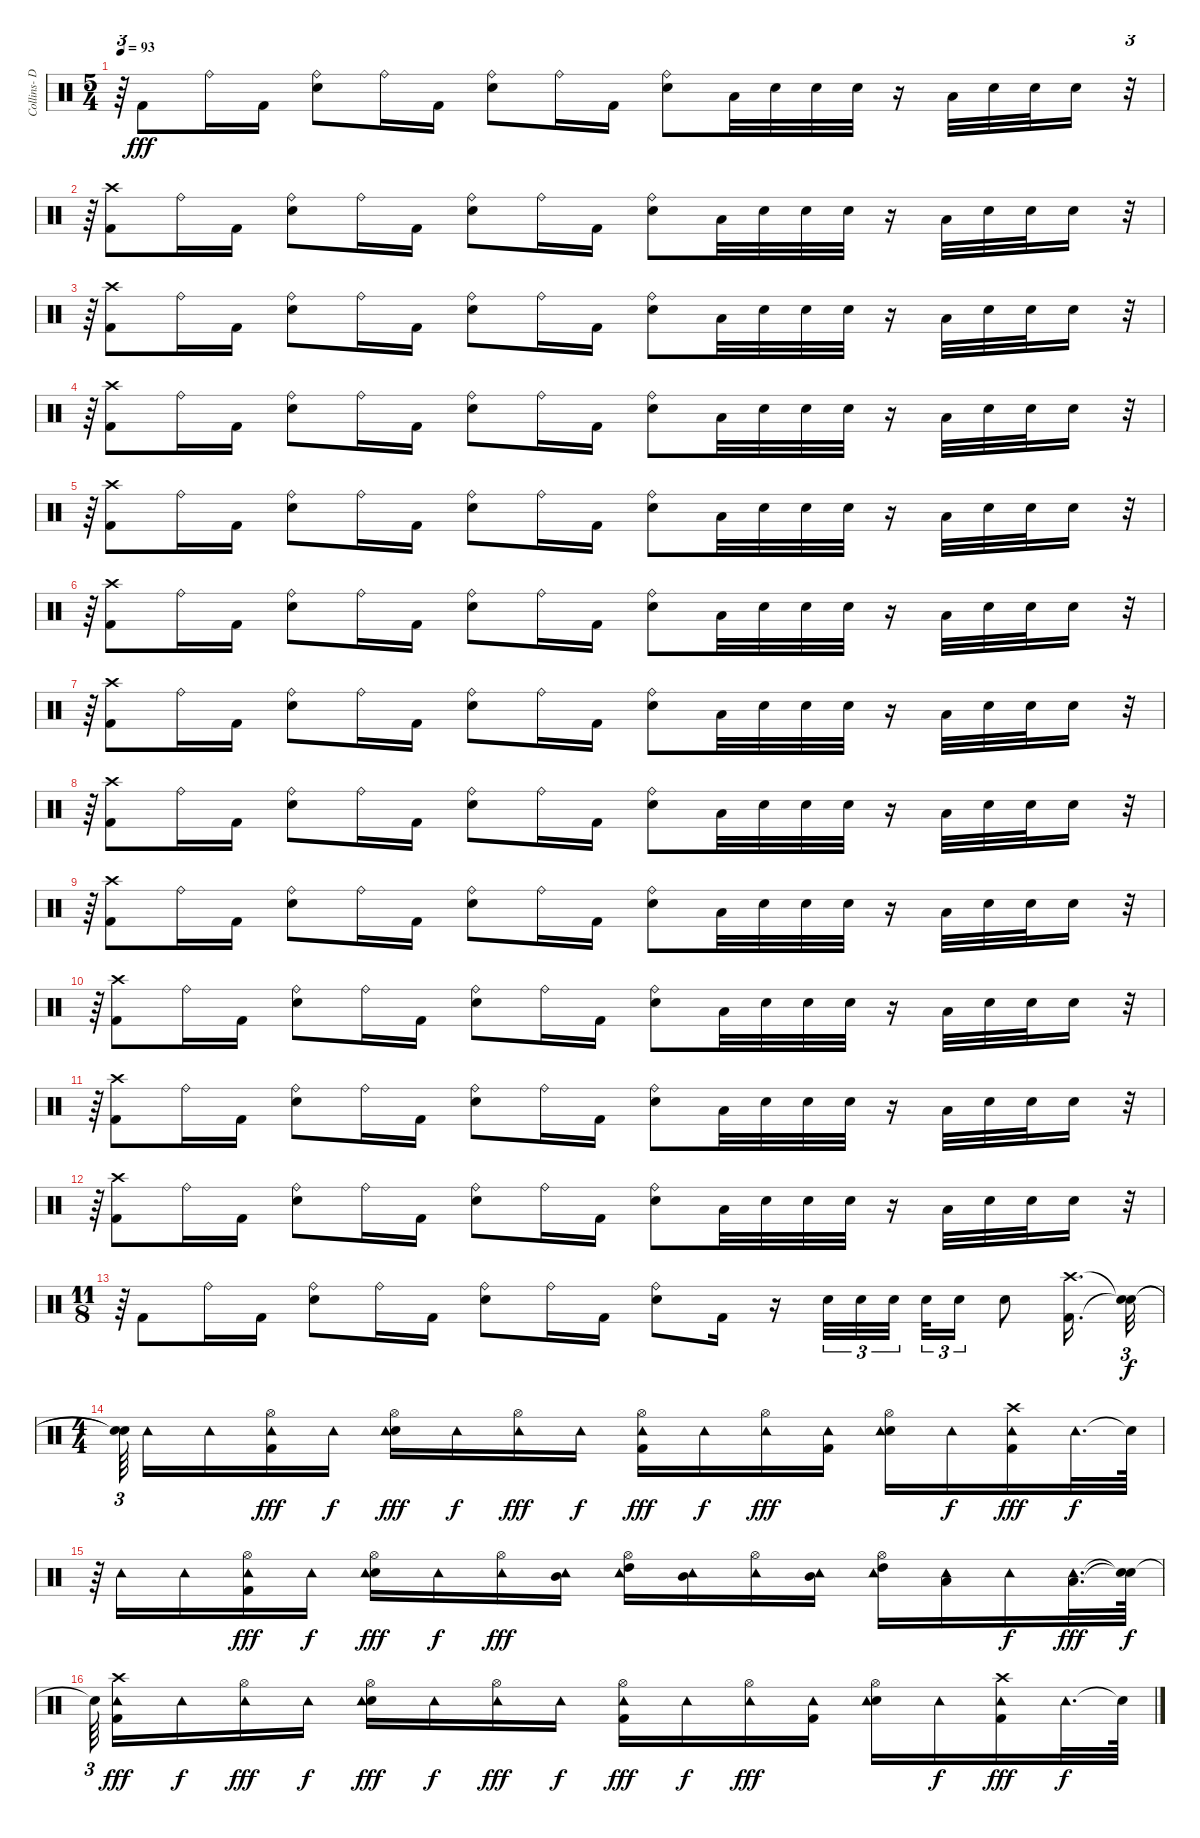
\track ("Collins- Drums" "Collins- D") {instrument percussion}
\staff {score}
\articulation defaults
\ts (5 4)
\tempo 93
\clef neutral
\ks c
r.64{tu (3 2) dy fff} "Kick (hit) 2".8 "Ride (bell)".16 "Kick (hit) 2".16 ("Electric Snare (hit)" "Ride (bell)").8 "Ride (bell)".16 "Kick (hit) 2".16 ("Electric Snare (hit)" "Ride (bell)").8 "Ride (bell)".16 "Kick (hit) 2".16 ("Ride (bell)" "Electric Snare (hit)").8 "Low Tom (hit)".32 "Electric Snare (hit)".32 "Electric Snare (hit)".32 "Electric Snare (hit)".32 r.16 "Low Tom (hit)".32 "Electric Snare (hit)".32 "Electric Snare (hit)".32 "Electric Snare (hit)".16 r.32{tu (3 2)} |
r.64{tu (3 2)} ("Crash high (hit)" "Kick (hit) 2").8 "Ride (bell)".16 "Kick (hit) 2".16 ("Electric Snare (hit)" "Ride (bell)").8 "Ride (bell)".16 "Kick (hit) 2".16 ("Electric Snare (hit)" "Ride (bell)").8 "Ride (bell)".16 "Kick (hit) 2".16 ("Ride (bell)" "Electric Snare (hit)").8 "Low Tom (hit)".32 "Electric Snare (hit)".32 "Electric Snare (hit)".32 "Electric Snare (hit)".32 r.16 "Low Tom (hit)".32 "Electric Snare (hit)".32 "Electric Snare (hit)".32 "Electric Snare (hit)".16 r.32{tu (3 2)} |
r.64{tu (3 2)} ("Crash high (hit)" "Kick (hit) 2").8 "Ride (bell)".16 "Kick (hit) 2".16 ("Electric Snare (hit)" "Ride (bell)").8 "Ride (bell)".16 "Kick (hit) 2".16 ("Electric Snare (hit)" "Ride (bell)").8 "Ride (bell)".16 "Kick (hit) 2".16 ("Ride (bell)" "Electric Snare (hit)").8 "Low Tom (hit)".32 "Electric Snare (hit)".32 "Electric Snare (hit)".32 "Electric Snare (hit)".32 r.16 "Low Tom (hit)".32 "Electric Snare (hit)".32 "Electric Snare (hit)".32 "Electric Snare (hit)".16 r.32{tu (3 2)} |
r.64{tu (3 2)} ("Crash high (hit)" "Kick (hit) 2").8 "Ride (bell)".16 "Kick (hit) 2".16 ("Electric Snare (hit)" "Ride (bell)").8 "Ride (bell)".16 "Kick (hit) 2".16 ("Electric Snare (hit)" "Ride (bell)").8 "Ride (bell)".16 "Kick (hit) 2".16 ("Ride (bell)" "Electric Snare (hit)").8 "Low Tom (hit)".32 "Electric Snare (hit)".32 "Electric Snare (hit)".32 "Electric Snare (hit)".32 r.16 "Low Tom (hit)".32 "Electric Snare (hit)".32 "Electric Snare (hit)".32 "Electric Snare (hit)".16 r.32{tu (3 2)} |
r.64{tu (3 2)} ("Crash high (hit)" "Kick (hit) 2").8 "Ride (bell)".16 "Kick (hit) 2".16 ("Electric Snare (hit)" "Ride (bell)").8 "Ride (bell)".16 "Kick (hit) 2".16 ("Electric Snare (hit)" "Ride (bell)").8 "Ride (bell)".16 "Kick (hit) 2".16 ("Ride (bell)" "Electric Snare (hit)").8 "Low Tom (hit)".32 "Electric Snare (hit)".32 "Electric Snare (hit)".32 "Electric Snare (hit)".32 r.16 "Low Tom (hit)".32 "Electric Snare (hit)".32 "Electric Snare (hit)".32 "Electric Snare (hit)".16 r.32{tu (3 2)} |
r.64{tu (3 2)} ("Crash high (hit)" "Kick (hit) 2").8 "Ride (bell)".16 "Kick (hit) 2".16 ("Electric Snare (hit)" "Ride (bell)").8 "Ride (bell)".16 "Kick (hit) 2".16 ("Electric Snare (hit)" "Ride (bell)").8 "Ride (bell)".16 "Kick (hit) 2".16 ("Ride (bell)" "Electric Snare (hit)").8 "Low Tom (hit)".32 "Electric Snare (hit)".32 "Electric Snare (hit)".32 "Electric Snare (hit)".32 r.16 "Low Tom (hit)".32 "Electric Snare (hit)".32 "Electric Snare (hit)".32 "Electric Snare (hit)".16 r.32{tu (3 2)} |
r.64{tu (3 2)} ("Crash high (hit)" "Kick (hit) 2").8 "Ride (bell)".16 "Kick (hit) 2".16 ("Electric Snare (hit)" "Ride (bell)").8 "Ride (bell)".16 "Kick (hit) 2".16 ("Electric Snare (hit)" "Ride (bell)").8 "Ride (bell)".16 "Kick (hit) 2".16 ("Ride (bell)" "Electric Snare (hit)").8 "Low Tom (hit)".32 "Electric Snare (hit)".32 "Electric Snare (hit)".32 "Electric Snare (hit)".32 r.16 "Low Tom (hit)".32 "Electric Snare (hit)".32 "Electric Snare (hit)".32 "Electric Snare (hit)".16 r.32{tu (3 2)} |
r.64{tu (3 2)} ("Crash high (hit)" "Kick (hit) 2").8 "Ride (bell)".16 "Kick (hit) 2".16 ("Electric Snare (hit)" "Ride (bell)").8 "Ride (bell)".16 "Kick (hit) 2".16 ("Electric Snare (hit)" "Ride (bell)").8 "Ride (bell)".16 "Kick (hit) 2".16 ("Ride (bell)" "Electric Snare (hit)").8 "Low Tom (hit)".32 "Electric Snare (hit)".32 "Electric Snare (hit)".32 "Electric Snare (hit)".32 r.16 "Low Tom (hit)".32 "Electric Snare (hit)".32 "Electric Snare (hit)".32 "Electric Snare (hit)".16 r.32{tu (3 2)} |
r.64{tu (3 2)} ("Crash high (hit)" "Kick (hit) 2").8 "Ride (bell)".16 "Kick (hit) 2".16 ("Electric Snare (hit)" "Ride (bell)").8 "Ride (bell)".16 "Kick (hit) 2".16 ("Electric Snare (hit)" "Ride (bell)").8 "Ride (bell)".16 "Kick (hit) 2".16 ("Ride (bell)" "Electric Snare (hit)").8 "Low Tom (hit)".32 "Electric Snare (hit)".32 "Electric Snare (hit)".32 "Electric Snare (hit)".32 r.16 "Low Tom (hit)".32 "Electric Snare (hit)".32 "Electric Snare (hit)".32 "Electric Snare (hit)".16 r.32{tu (3 2)} |
r.64{tu (3 2)} ("Crash high (hit)" "Kick (hit) 2").8 "Ride (bell)".16 "Kick (hit) 2".16 ("Electric Snare (hit)" "Ride (bell)").8 "Ride (bell)".16 "Kick (hit) 2".16 ("Electric Snare (hit)" "Ride (bell)").8 "Ride (bell)".16 "Kick (hit) 2".16 ("Ride (bell)" "Electric Snare (hit)").8 "Low Tom (hit)".32 "Electric Snare (hit)".32 "Electric Snare (hit)".32 "Electric Snare (hit)".32 r.16 "Low Tom (hit)".32 "Electric Snare (hit)".32 "Electric Snare (hit)".32 "Electric Snare (hit)".16 r.32{tu (3 2)} |
r.64{tu (3 2)} ("Crash high (hit)" "Kick (hit) 2").8 "Ride (bell)".16 "Kick (hit) 2".16 ("Electric Snare (hit)" "Ride (bell)").8 "Ride (bell)".16 "Kick (hit) 2".16 ("Electric Snare (hit)" "Ride (bell)").8 "Ride (bell)".16 "Kick (hit) 2".16 ("Ride (bell)" "Electric Snare (hit)").8 "Low Tom (hit)".32 "Electric Snare (hit)".32 "Electric Snare (hit)".32 "Electric Snare (hit)".32 r.16 "Low Tom (hit)".32 "Electric Snare (hit)".32 "Electric Snare (hit)".32 "Electric Snare (hit)".16 r.32{tu (3 2)} |
r.64{tu (3 2)} ("Crash high (hit)" "Kick (hit) 2").8 "Ride (bell)".16 "Kick (hit) 2".16 ("Electric Snare (hit)" "Ride (bell)").8 "Ride (bell)".16 "Kick (hit) 2".16 ("Electric Snare (hit)" "Ride (bell)").8 "Ride (bell)".16 "Kick (hit) 2".16 ("Ride (bell)" "Electric Snare (hit)").8 "Low Tom (hit)".32 "Electric Snare (hit)".32 "Electric Snare (hit)".32 "Electric Snare (hit)".32 r.16 "Low Tom (hit)".32 "Electric Snare (hit)".32 "Electric Snare (hit)".32 "Electric Snare (hit)".16 r.32{tu (3 2)} |
\ts (11 8)
r.64{tu (3 2)} "Kick (hit) 2".8 "Ride (bell)".16 "Kick (hit) 2".16 ("Electric Snare (hit)" "Ride (bell)").8 "Ride (bell)".16 "Kick (hit) 2".16 ("Electric Snare (hit)" "Ride (bell)").8 "Ride (bell)".16 "Kick (hit) 2".16 ("Ride (bell)" "Electric Snare (hit)").8 "Kick (hit) 2".16 r.16 "Electric Snare (hit)".32{tu (3 2)} "Electric Snare (hit)".32{tu (3 2)} "Electric Snare (hit)".32{tu (3 2) beam splitsecondary} "Electric Snare (hit)".32{tu (3 2)} "Electric Snare (hit)".16{tu (3 2)} "Electric Snare (hit)".8 ("Kick (hit) 2" "Crash high (hit)").16{d} ("Snare (hit)"{t} "Snare (hit)"{t}).32{tu (3 2) dy f} |
\ts (4 4)
("Snare (hit)"{t} "Snare (hit)"{t}).64{tu (3 2) beam splitsecondary} "Tambourine (hit)".16 "Tambourine (hit)".16 ("Hi-Hat (open)" "Kick (hit) 2" "Tambourine (hit)").16{dy fff} "Tambourine (hit)".16{dy f} ("Hi-Hat (open)" "Electric Snare (hit)" "Tambourine (hit)").16{dy fff} "Tambourine (hit)".16{dy f} ("Hi-Hat (open)" "Tambourine (hit)").16{dy fff} "Tambourine (hit)".16{dy f} ("Hi-Hat (open)" "Kick (hit) 2" "Tambourine (hit)").16{dy fff} "Tambourine (hit)".16{dy f} ("Hi-Hat (open)" "Tambourine (hit)").16{dy fff} ("Kick (hit) 2" "Tambourine (hit)").16 ("Hi-Hat (open)" "Electric Snare (hit)" "Tambourine (hit)").16 "Tambourine (hit)".16{dy f} ("Kick (hit) 2" "Crash high (hit)" "Tambourine (hit)").16{dy fff} "Tambourine (hit)".32{d dy f} "Snare (hit)"{t}.64 |
r.64{tu (3 2)} "Tambourine (hit)".16 "Tambourine (hit)".16 ("Hi-Hat (open)" "Kick (hit) 2" "Tambourine (hit)").16{dy fff} "Tambourine (hit)".16{dy f} ("Hi-Hat (open)" "Electric Snare (hit)" "Tambourine (hit)").16{dy fff} "Tambourine (hit)".16{dy f} ("Hi-Hat (open)" "Tambourine (hit)").16{dy fff} ("Mid Tom (hit)" "Tambourine (hit)").16 ("High Tom (hit)" "Hi-Hat (open)" "Tambourine (hit)").16 ("Mid Tom (hit)" "Tambourine (hit)").16 ("Hi-Hat (open)" "Tambourine (hit)").16 ("Mid Tom (hit)" "Tambourine (hit)").16 ("Hi-Hat (open)" "High Tom (hit)" "Tambourine (hit)").16 ("Low Tom (hit)" "Tambourine (hit)").16 "Tambourine (hit)".16{dy f} ("Low Tom (hit)" "Tambourine (hit)").32{d dy fff} ("Snare (hit)"{t} "Snare (hit)"{t}).64{dy f} |
"Snare (hit)"{t}.64{tu (3 2) beam splitsecondary} ("Crash high (hit)" "Kick (hit) 2" "Tambourine (hit)").16{dy fff} "Tambourine (hit)".16{dy f} ("Hi-Hat (open)" "Tambourine (hit)").16{dy fff} "Tambourine (hit)".16{dy f} ("Hi-Hat (open)" "Electric Snare (hit)" "Tambourine (hit)").16{dy fff} "Tambourine (hit)".16{dy f} ("Hi-Hat (open)" "Tambourine (hit)").16{dy fff} "Tambourine (hit)".16{dy f} ("Hi-Hat (open)" "Kick (hit) 2" "Tambourine (hit)").16{dy fff} "Tambourine (hit)".16{dy f} ("Hi-Hat (open)" "Tambourine (hit)").16{dy fff} ("Kick (hit) 2" "Tambourine (hit)").16 ("Hi-Hat (open)" "Electric Snare (hit)" "Tambourine (hit)").16 "Tambourine (hit)".16{dy f} ("Kick (hit) 2" "Crash high (hit)" "Tambourine (hit)").16{dy fff} "Tambourine (hit)".32{d dy f} "Snare (hit)"{t}.64
